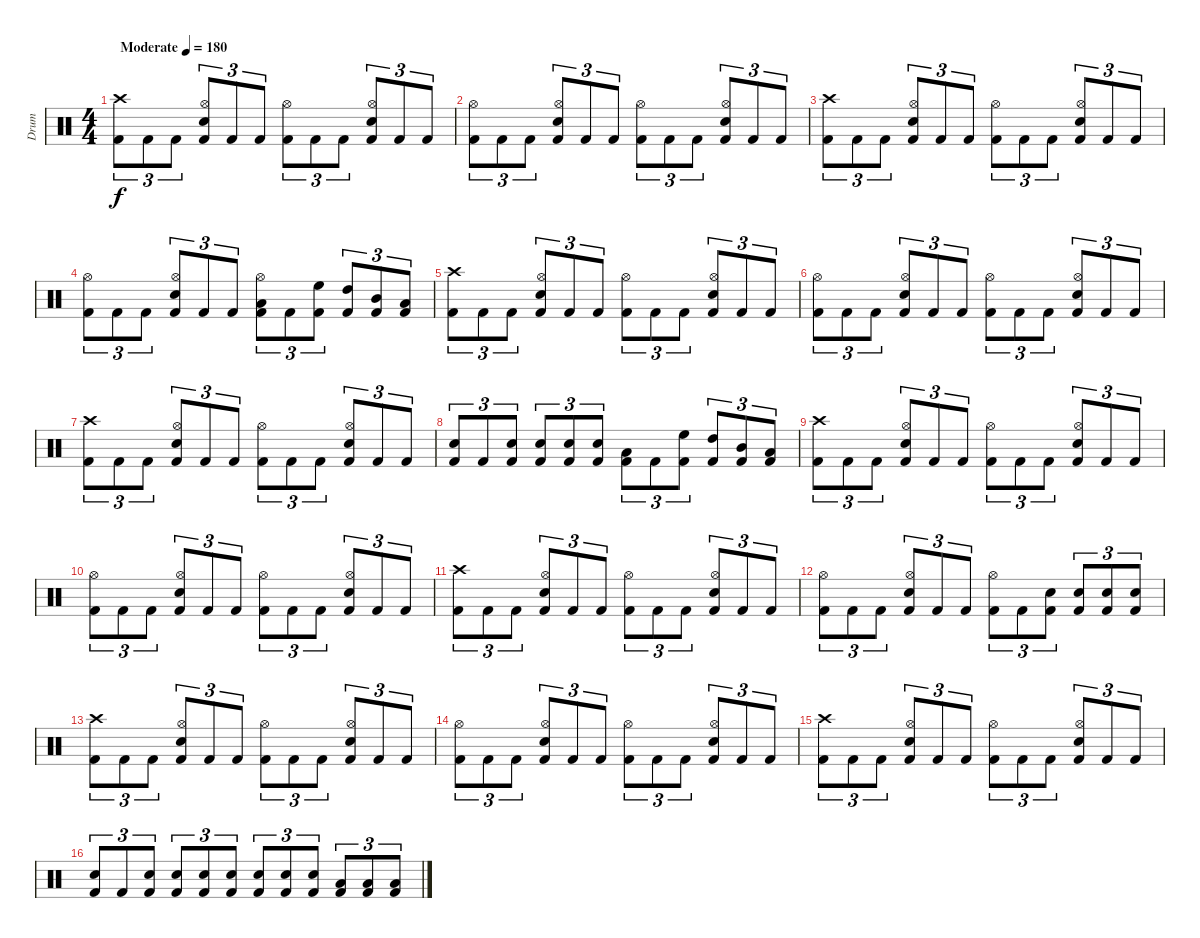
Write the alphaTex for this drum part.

\track ("Drum" "Drum") {instrument percussion}
\staff {score}
\articulation defaults
\ts (4 4)
\tempo (180 "Moderate")
\clef neutral
\ks c
("Crash high (hit)" "Kick (hit) 2").8{tu (3 2) dy f} "Kick (hit) 2".8{tu (3 2)} "Kick (hit) 2".8{tu (3 2)} ("Hi-Hat (open)" "Snare (hit) 2" "Kick (hit) 2").8{tu (3 2)} "Kick (hit) 2".8{tu (3 2)} "Kick (hit) 2".8{tu (3 2)} ("Hi-Hat (open)" "Kick (hit) 2").8{tu (3 2)} "Kick (hit) 2".8{tu (3 2)} "Kick (hit) 2".8{tu (3 2)} ("Hi-Hat (open)" "Snare (hit) 2" "Kick (hit) 2").8{tu (3 2)} "Kick (hit) 2".8{tu (3 2)} "Kick (hit) 2".8{tu (3 2)} |
("Hi-Hat (open)" "Kick (hit) 2").8{tu (3 2)} "Kick (hit) 2".8{tu (3 2)} "Kick (hit) 2".8{tu (3 2)} ("Hi-Hat (open)" "Snare (hit) 2" "Kick (hit) 2").8{tu (3 2)} "Kick (hit) 2".8{tu (3 2)} "Kick (hit) 2".8{tu (3 2)} ("Hi-Hat (open)" "Kick (hit) 2").8{tu (3 2)} "Kick (hit) 2".8{tu (3 2)} "Kick (hit) 2".8{tu (3 2)} ("Hi-Hat (open)" "Snare (hit) 2" "Kick (hit) 2").8{tu (3 2)} "Kick (hit) 2".8{tu (3 2)} "Kick (hit) 2".8{tu (3 2)} |
("Crash high (hit)" "Kick (hit) 2").8{tu (3 2)} "Kick (hit) 2".8{tu (3 2)} "Kick (hit) 2".8{tu (3 2)} ("Hi-Hat (open)" "Snare (hit) 2" "Kick (hit) 2").8{tu (3 2)} "Kick (hit) 2".8{tu (3 2)} "Kick (hit) 2".8{tu (3 2)} ("Hi-Hat (open)" "Kick (hit) 2").8{tu (3 2)} "Kick (hit) 2".8{tu (3 2)} "Kick (hit) 2".8{tu (3 2)} ("Hi-Hat (open)" "Snare (hit) 2" "Kick (hit) 2").8{tu (3 2)} "Kick (hit) 2".8{tu (3 2)} "Kick (hit) 2".8{tu (3 2)} |
("Hi-Hat (open)" "Kick (hit) 2").8{tu (3 2)} "Kick (hit) 2".8{tu (3 2)} "Kick (hit) 2".8{tu (3 2)} ("Hi-Hat (open)" "Snare (hit) 2" "Kick (hit) 2").8{tu (3 2)} "Kick (hit) 2".8{tu (3 2)} "Kick (hit) 2".8{tu (3 2)} ("Hi-Hat (open)" "Low Tom (hit)" "Kick (hit) 2").8{tu (3 2)} "Kick (hit) 2".8{tu (3 2)} ("High Floor Tom (hit)" "Kick (hit) 2").8{tu (3 2)} ("High Tom (hit)" "Kick (hit) 2").8{tu (3 2)} ("Mid Tom (hit)" "Kick (hit) 2").8{tu (3 2)} ("Low Tom (hit)" "Kick (hit) 2").8{tu (3 2)} |
("Crash high (hit)" "Kick (hit) 2").8{tu (3 2)} "Kick (hit) 2".8{tu (3 2)} "Kick (hit) 2".8{tu (3 2)} ("Hi-Hat (open)" "Snare (hit) 2" "Kick (hit) 2").8{tu (3 2)} "Kick (hit) 2".8{tu (3 2)} "Kick (hit) 2".8{tu (3 2)} ("Hi-Hat (open)" "Kick (hit) 2").8{tu (3 2)} "Kick (hit) 2".8{tu (3 2)} "Kick (hit) 2".8{tu (3 2)} ("Hi-Hat (open)" "Snare (hit) 2" "Kick (hit) 2").8{tu (3 2)} "Kick (hit) 2".8{tu (3 2)} "Kick (hit) 2".8{tu (3 2)} |
("Hi-Hat (open)" "Kick (hit) 2").8{tu (3 2)} "Kick (hit) 2".8{tu (3 2)} "Kick (hit) 2".8{tu (3 2)} ("Hi-Hat (open)" "Snare (hit) 2" "Kick (hit) 2").8{tu (3 2)} "Kick (hit) 2".8{tu (3 2)} "Kick (hit) 2".8{tu (3 2)} ("Hi-Hat (open)" "Kick (hit) 2").8{tu (3 2)} "Kick (hit) 2".8{tu (3 2)} "Kick (hit) 2".8{tu (3 2)} ("Hi-Hat (open)" "Snare (hit) 2" "Kick (hit) 2").8{tu (3 2)} "Kick (hit) 2".8{tu (3 2)} "Kick (hit) 2".8{tu (3 2)} |
("Crash high (hit)" "Kick (hit) 2").8{tu (3 2)} "Kick (hit) 2".8{tu (3 2)} "Kick (hit) 2".8{tu (3 2)} ("Hi-Hat (open)" "Snare (hit) 2" "Kick (hit) 2").8{tu (3 2)} "Kick (hit) 2".8{tu (3 2)} "Kick (hit) 2".8{tu (3 2)} ("Hi-Hat (open)" "Kick (hit) 2").8{tu (3 2)} "Kick (hit) 2".8{tu (3 2)} "Kick (hit) 2".8{tu (3 2)} ("Hi-Hat (open)" "Snare (hit) 2" "Kick (hit) 2").8{tu (3 2)} "Kick (hit) 2".8{tu (3 2)} "Kick (hit) 2".8{tu (3 2)} |
("Snare (hit) 2" "Kick (hit) 2").8{tu (3 2)} "Kick (hit) 2".8{tu (3 2)} ("Snare (hit) 2" "Kick (hit) 2").8{tu (3 2)} ("Snare (hit) 2" "Kick (hit) 2").8{tu (3 2)} ("Snare (hit) 2" "Kick (hit) 2").8{tu (3 2)} ("Snare (hit) 2" "Kick (hit) 2").8{tu (3 2)} ("Low Tom (hit)" "Kick (hit) 2").8{tu (3 2)} "Kick (hit) 2".8{tu (3 2)} ("High Floor Tom (hit)" "Kick (hit) 2").8{tu (3 2)} ("High Tom (hit)" "Kick (hit) 2").8{tu (3 2)} ("Mid Tom (hit)" "Kick (hit) 2").8{tu (3 2)} ("Low Tom (hit)" "Kick (hit) 2").8{tu (3 2)} |
("Crash high (hit)" "Kick (hit) 2").8{tu (3 2)} "Kick (hit) 2".8{tu (3 2)} "Kick (hit) 2".8{tu (3 2)} ("Hi-Hat (open)" "Snare (hit) 2" "Kick (hit) 2").8{tu (3 2)} "Kick (hit) 2".8{tu (3 2)} "Kick (hit) 2".8{tu (3 2)} ("Hi-Hat (open)" "Kick (hit) 2").8{tu (3 2)} "Kick (hit) 2".8{tu (3 2)} "Kick (hit) 2".8{tu (3 2)} ("Hi-Hat (open)" "Snare (hit) 2" "Kick (hit) 2").8{tu (3 2)} "Kick (hit) 2".8{tu (3 2)} "Kick (hit) 2".8{tu (3 2)} |
("Hi-Hat (open)" "Kick (hit) 2").8{tu (3 2)} "Kick (hit) 2".8{tu (3 2)} "Kick (hit) 2".8{tu (3 2)} ("Hi-Hat (open)" "Snare (hit) 2" "Kick (hit) 2").8{tu (3 2)} "Kick (hit) 2".8{tu (3 2)} "Kick (hit) 2".8{tu (3 2)} ("Hi-Hat (open)" "Kick (hit) 2").8{tu (3 2)} "Kick (hit) 2".8{tu (3 2)} "Kick (hit) 2".8{tu (3 2)} ("Hi-Hat (open)" "Snare (hit) 2" "Kick (hit) 2").8{tu (3 2)} "Kick (hit) 2".8{tu (3 2)} "Kick (hit) 2".8{tu (3 2)} |
("Crash high (hit)" "Kick (hit) 2").8{tu (3 2)} "Kick (hit) 2".8{tu (3 2)} "Kick (hit) 2".8{tu (3 2)} ("Hi-Hat (open)" "Snare (hit) 2" "Kick (hit) 2").8{tu (3 2)} "Kick (hit) 2".8{tu (3 2)} "Kick (hit) 2".8{tu (3 2)} ("Hi-Hat (open)" "Kick (hit) 2").8{tu (3 2)} "Kick (hit) 2".8{tu (3 2)} "Kick (hit) 2".8{tu (3 2)} ("Hi-Hat (open)" "Snare (hit) 2" "Kick (hit) 2").8{tu (3 2)} "Kick (hit) 2".8{tu (3 2)} "Kick (hit) 2".8{tu (3 2)} |
("Hi-Hat (open)" "Kick (hit) 2").8{tu (3 2)} "Kick (hit) 2".8{tu (3 2)} "Kick (hit) 2".8{tu (3 2)} ("Hi-Hat (open)" "Snare (hit) 2" "Kick (hit) 2").8{tu (3 2)} "Kick (hit) 2".8{tu (3 2)} "Kick (hit) 2".8{tu (3 2)} ("Hi-Hat (open)" "Kick (hit) 2").8{tu (3 2)} "Kick (hit) 2".8{tu (3 2)} ("Snare (hit) 2" "Kick (hit) 2").8{tu (3 2)} ("Snare (hit) 2" "Kick (hit) 2").8{tu (3 2)} ("Snare (hit) 2" "Kick (hit) 2").8{tu (3 2)} ("Snare (hit) 2" "Kick (hit) 2").8{tu (3 2)} |
("Crash high (hit)" "Kick (hit) 2").8{tu (3 2)} "Kick (hit) 2".8{tu (3 2)} "Kick (hit) 2".8{tu (3 2)} ("Hi-Hat (open)" "Snare (hit) 2" "Kick (hit) 2").8{tu (3 2)} "Kick (hit) 2".8{tu (3 2)} "Kick (hit) 2".8{tu (3 2)} ("Hi-Hat (open)" "Kick (hit) 2").8{tu (3 2)} "Kick (hit) 2".8{tu (3 2)} "Kick (hit) 2".8{tu (3 2)} ("Hi-Hat (open)" "Snare (hit) 2" "Kick (hit) 2").8{tu (3 2)} "Kick (hit) 2".8{tu (3 2)} "Kick (hit) 2".8{tu (3 2)} |
("Hi-Hat (open)" "Kick (hit) 2").8{tu (3 2)} "Kick (hit) 2".8{tu (3 2)} "Kick (hit) 2".8{tu (3 2)} ("Hi-Hat (open)" "Snare (hit) 2" "Kick (hit) 2").8{tu (3 2)} "Kick (hit) 2".8{tu (3 2)} "Kick (hit) 2".8{tu (3 2)} ("Hi-Hat (open)" "Kick (hit) 2").8{tu (3 2)} "Kick (hit) 2".8{tu (3 2)} "Kick (hit) 2".8{tu (3 2)} ("Hi-Hat (open)" "Snare (hit) 2" "Kick (hit) 2").8{tu (3 2)} "Kick (hit) 2".8{tu (3 2)} "Kick (hit) 2".8{tu (3 2)} |
("Crash high (hit)" "Kick (hit) 2").8{tu (3 2)} "Kick (hit) 2".8{tu (3 2)} "Kick (hit) 2".8{tu (3 2)} ("Hi-Hat (open)" "Snare (hit) 2" "Kick (hit) 2").8{tu (3 2)} "Kick (hit) 2".8{tu (3 2)} "Kick (hit) 2".8{tu (3 2)} ("Hi-Hat (open)" "Kick (hit) 2").8{tu (3 2)} "Kick (hit) 2".8{tu (3 2)} "Kick (hit) 2".8{tu (3 2)} ("Hi-Hat (open)" "Snare (hit) 2" "Kick (hit) 2").8{tu (3 2)} "Kick (hit) 2".8{tu (3 2)} "Kick (hit) 2".8{tu (3 2)} |
("Snare (hit) 2" "Kick (hit) 2").8{tu (3 2)} "Kick (hit) 2".8{tu (3 2)} ("Snare (hit) 2" "Kick (hit) 2").8{tu (3 2)} ("Snare (hit) 2" "Kick (hit) 2").8{tu (3 2)} ("Snare (hit) 2" "Kick (hit) 2").8{tu (3 2)} ("Snare (hit) 2" "Kick (hit) 2").8{tu (3 2)} ("Snare (hit) 2" "Kick (hit) 2").8{tu (3 2)} ("Snare (hit) 2" "Kick (hit) 2").8{tu (3 2)} ("Snare (hit) 2" "Kick (hit) 2").8{tu (3 2)} ("Low Tom (hit)" "Kick (hit) 2").8{tu (3 2)} ("Low Tom (hit)" "Kick (hit) 2").8{tu (3 2)} ("Low Tom (hit)" "Kick (hit) 2").8{tu (3 2)}
